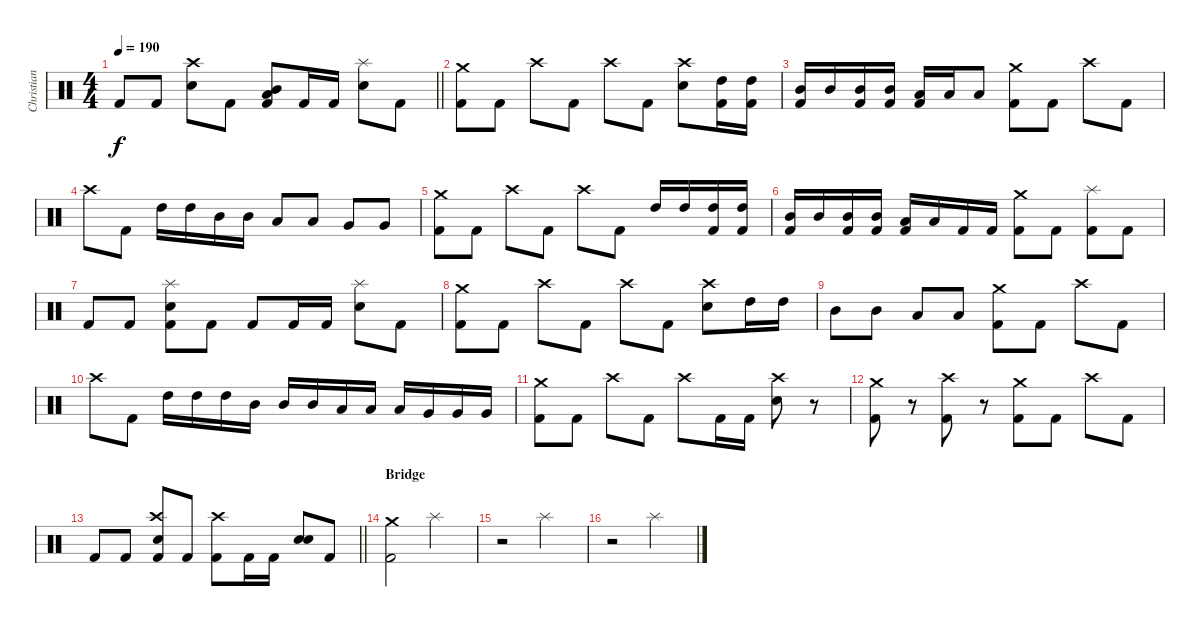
\track ("Christian" "Christian") {instrument percussion}
\staff {score}
\articulation defaults
\ts (4 4)
\tempo 190
\clef neutral
\barLineRight lightlight
\ks c "Kick (hit) 2".8{dy f} "Kick (hit) 2".8
("Crash high (hit)" "Electric Snare (hit)").8 "Kick (hit) 2".8 ("Low Tom (hit)" "Mid Tom (hit)" "Kick (hit) 2").8 "Kick (hit) 2".16 "Kick (hit) 2".16 ("Splash (hit)" "Electric Snare (hit)").8 "Kick (hit) 2".8 |
("Crash medium (hit)" "Kick (hit) 2").8 "Kick (hit) 2".8 "Crash high (hit)".8 "Kick (hit) 2".8 "Crash high (hit)".8 "Kick (hit) 2".8 ("Crash high (hit)" "Electric Snare (hit)").8 ("High Tom (hit)" "Kick (hit) 2").16 ("High Tom (hit)" "Kick (hit) 2").16 |
("Mid Tom (hit)" "Kick (hit) 2").16 "Mid Tom (hit)".16 ("Mid Tom (hit)" "Kick (hit) 2").16 ("Mid Tom (hit)" "Kick (hit) 2").16 ("Low Tom (hit)" "Kick (hit) 2").16 "Low Tom (hit)".16 "Low Tom (hit)".8 ("Crash medium (hit)" "Kick (hit) 2").8 "Kick (hit) 2".8 "Crash high (hit)".8 "Kick (hit) 2".8 |
"Crash high (hit)".8 "Kick (hit) 2".8 "High Tom (hit)".16 "High Tom (hit)".16 "Mid Tom (hit)".16 "Mid Tom (hit)".16 "Low Tom (hit)".8 "Low Tom (hit)".8 "Very Low Tom (hit)".8 "Very Low Tom (hit)".8 |
("Crash medium (hit)" "Kick (hit) 2").8 "Kick (hit) 2".8 "Crash high (hit)".8 "Kick (hit) 2".8 "Crash high (hit)".8 "Kick (hit) 2".8 "High Tom (hit)".16 "High Tom (hit)".16 ("High Tom (hit)" "Kick (hit) 2").16 ("High Tom (hit)" "Kick (hit) 2").16 |
("Mid Tom (hit)" "Kick (hit) 2").16 "Mid Tom (hit)".16 ("Mid Tom (hit)" "Kick (hit) 2").16 ("Mid Tom (hit)" "Kick (hit) 2").16 ("Low Tom (hit)" "Kick (hit) 2").16 "Low Tom (hit)".16 "Kick (hit) 2".16 "Kick (hit) 2".16 ("Crash medium (hit)" "Kick (hit) 2").8 "Kick (hit) 2".8 ("Splash (hit)" "Kick (hit) 2").8 "Kick (hit) 2".8 |
"Kick (hit) 2".8 "Kick (hit) 2".8 ("Splash (hit)" "Electric Snare (hit)" "Kick (hit) 2").8 "Kick (hit) 2".8 "Kick (hit) 2".8 "Kick (hit) 2".16 "Kick (hit) 2".16 ("Splash (hit)" "Electric Snare (hit)").8 "Kick (hit) 2".8 |
("Crash medium (hit)" "Kick (hit) 2").8 "Kick (hit) 2".8 "Crash high (hit)".8 "Kick (hit) 2".8 "Crash high (hit)".8 "Kick (hit) 2".8 ("Crash high (hit)" "Electric Snare (hit)").8 "High Tom (hit)".16 "High Tom (hit)".16 |
"Mid Tom (hit)".8 "Mid Tom (hit)".8 "Low Tom (hit)".8 "Low Tom (hit)".8 ("Crash medium (hit)" "Kick (hit) 2").8 "Kick (hit) 2".8 "Crash high (hit)".8 "Kick (hit) 2".8 |
"Crash high (hit)".8 "Kick (hit) 2".8 "High Tom (hit)".16 "High Tom (hit)".16 "High Tom (hit)".16 "Mid Tom (hit)".16 "Mid Tom (hit)".16 "Mid Tom (hit)".16 "Low Tom (hit)".16 "Low Tom (hit)".16 "Low Tom (hit)".16 "Very Low Tom (hit)".16 "Very Low Tom (hit)".16 "Very Low Tom (hit)".16 |
("Crash medium (hit)" "Kick (hit) 2").8 "Kick (hit) 2".8 "Crash high (hit)".8 "Kick (hit) 2".8 "Crash high (hit)".8 "Kick (hit) 2".16 "Kick (hit) 2".16 ("Crash high (hit)" "Electric Snare (hit)").8 r.8 |
("Crash medium (hit)" "Kick (hit) 2").8 r.8 ("Crash high (hit)" "Kick (hit) 2").8 r.8 ("Crash medium (hit)" "Kick (hit) 2").8 "Kick (hit) 2".8 "Crash high (hit)".8 "Kick (hit) 2".8 |
\barLineRight lightlight "Kick (hit) 2".8 "Kick (hit) 2".8
("Crash high (hit)" "Electric Snare (hit)" "Kick (hit) 2").8 "Kick (hit) 2".8 ("Crash high (hit)" "Kick (hit) 2").8 "Kick (hit) 2".16 "Kick (hit) 2".16 ("Electric Snare (hit)" "Electric Snare (hit)").8 "Kick (hit) 2".8 |
\section ("" "Bridge")
("Crash medium (hit)" "Kick (hit) 2").2 "Splash (hit)".2 |
r.2 "Splash (hit)".2 |
r.2 "Splash (hit)".2
